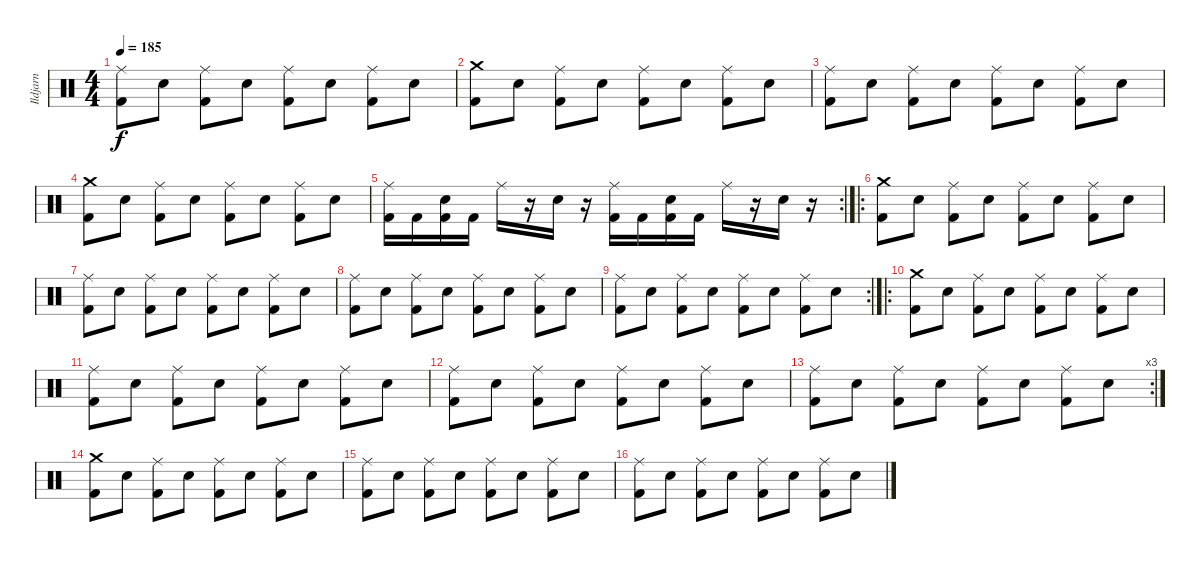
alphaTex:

\track ("Ildjarn" "Ildjarn") {instrument percussion}
\staff {score}
\articulation defaults
\ts (4 4)
\tempo 185
\clef neutral
\ks c
("Ride (middle)" "Kick (hit) 2").8{dy f} "Snare (hit) 2".8 ("Ride (middle)" "Kick (hit) 2").8 "Snare (hit) 2".8 ("Ride (middle)" "Kick (hit) 2").8 "Snare (hit) 2".8 ("Ride (middle)" "Kick (hit) 2").8 "Snare (hit) 2".8 |
("Crash medium (hit)" "Kick (hit) 2").8 "Snare (hit) 2".8 ("Ride (middle)" "Kick (hit) 2").8 "Snare (hit) 2".8 ("Ride (middle)" "Kick (hit) 2").8 "Snare (hit) 2".8 ("Ride (middle)" "Kick (hit) 2").8 "Snare (hit) 2".8 |
("Ride (middle)" "Kick (hit) 2").8 "Snare (hit) 2".8 ("Ride (middle)" "Kick (hit) 2").8 "Snare (hit) 2".8 ("Ride (middle)" "Kick (hit) 2").8 "Snare (hit) 2".8 ("Ride (middle)" "Kick (hit) 2").8 "Snare (hit) 2".8 |
("Crash medium (hit)" "Kick (hit) 2").8 "Snare (hit) 2".8 ("Ride (middle)" "Kick (hit) 2").8 "Snare (hit) 2".8 ("Ride (middle)" "Kick (hit) 2").8 "Snare (hit) 2".8 ("Ride (middle)" "Kick (hit) 2").8 "Snare (hit) 2".8 |
\rc 2
("Ride (middle)" "Kick (hit) 2").16 "Kick (hit) 2".16 ("Snare (hit) 2" "Kick (hit) 2").16 "Kick (hit) 2".16 "Ride (middle)".16 r.16 "Snare (hit) 2".16 r.16 ("Ride (middle)" "Kick (hit) 2").16 "Kick (hit) 2".16 ("Snare (hit) 2" "Kick (hit) 2").16 "Kick (hit) 2".16 "Ride (middle)".16 r.16 "Snare (hit) 2".16 r.16 |
\ro
("Crash medium (hit)" "Kick (hit) 2").8 "Snare (hit) 2".8 ("Ride (middle)" "Kick (hit) 2").8 "Snare (hit) 2".8 ("Ride (middle)" "Kick (hit) 2").8 "Snare (hit) 2".8 ("Ride (middle)" "Kick (hit) 2").8 "Snare (hit) 2".8 |
("Ride (middle)" "Kick (hit) 2").8 "Snare (hit) 2".8 ("Ride (middle)" "Kick (hit) 2").8 "Snare (hit) 2".8 ("Ride (middle)" "Kick (hit) 2").8 "Snare (hit) 2".8 ("Ride (middle)" "Kick (hit) 2").8 "Snare (hit) 2".8 |
("Ride (middle)" "Kick (hit) 2").8 "Snare (hit) 2".8 ("Ride (middle)" "Kick (hit) 2").8 "Snare (hit) 2".8 ("Ride (middle)" "Kick (hit) 2").8 "Snare (hit) 2".8 ("Ride (middle)" "Kick (hit) 2").8 "Snare (hit) 2".8 |
\rc 2
("Ride (middle)" "Kick (hit) 2").8 "Snare (hit) 2".8 ("Ride (middle)" "Kick (hit) 2").8 "Snare (hit) 2".8 ("Ride (middle)" "Kick (hit) 2").8 "Snare (hit) 2".8 ("Ride (middle)" "Kick (hit) 2").8 "Snare (hit) 2".8 |
\ro
("Crash medium (hit)" "Kick (hit) 2").8 "Snare (hit) 2".8 ("Ride (middle)" "Kick (hit) 2").8 "Snare (hit) 2".8 ("Ride (middle)" "Kick (hit) 2").8 "Snare (hit) 2".8 ("Ride (middle)" "Kick (hit) 2").8 "Snare (hit) 2".8 |
("Ride (middle)" "Kick (hit) 2").8 "Snare (hit) 2".8 ("Ride (middle)" "Kick (hit) 2").8 "Snare (hit) 2".8 ("Ride (middle)" "Kick (hit) 2").8 "Snare (hit) 2".8 ("Ride (middle)" "Kick (hit) 2").8 "Snare (hit) 2".8 |
("Ride (middle)" "Kick (hit) 2").8 "Snare (hit) 2".8 ("Ride (middle)" "Kick (hit) 2").8 "Snare (hit) 2".8 ("Ride (middle)" "Kick (hit) 2").8 "Snare (hit) 2".8 ("Ride (middle)" "Kick (hit) 2").8 "Snare (hit) 2".8 |
\rc 3
("Ride (middle)" "Kick (hit) 2").8 "Snare (hit) 2".8 ("Ride (middle)" "Kick (hit) 2").8 "Snare (hit) 2".8 ("Ride (middle)" "Kick (hit) 2").8 "Snare (hit) 2".8 ("Ride (middle)" "Kick (hit) 2").8 "Snare (hit) 2".8 |
("Crash medium (hit)" "Kick (hit) 2").8 "Snare (hit) 2".8 ("Ride (middle)" "Kick (hit) 2").8 "Snare (hit) 2".8 ("Ride (middle)" "Kick (hit) 2").8 "Snare (hit) 2".8 ("Ride (middle)" "Kick (hit) 2").8 "Snare (hit) 2".8 |
("Ride (middle)" "Kick (hit) 2").8 "Snare (hit) 2".8 ("Ride (middle)" "Kick (hit) 2").8 "Snare (hit) 2".8 ("Ride (middle)" "Kick (hit) 2").8 "Snare (hit) 2".8 ("Ride (middle)" "Kick (hit) 2").8 "Snare (hit) 2".8 |
("Ride (middle)" "Kick (hit) 2").8 "Snare (hit) 2".8 ("Ride (middle)" "Kick (hit) 2").8 "Snare (hit) 2".8 ("Ride (middle)" "Kick (hit) 2").8 "Snare (hit) 2".8 ("Ride (middle)" "Kick (hit) 2").8 "Snare (hit) 2".8
